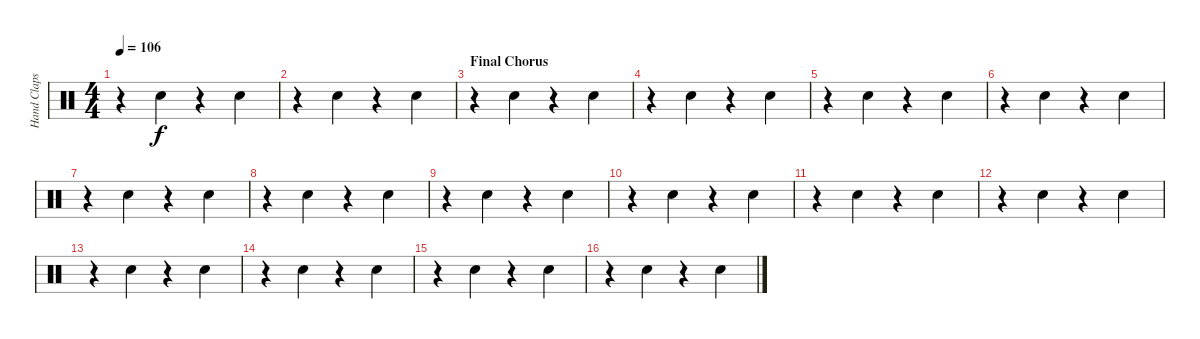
\track ("Hand Claps" "Hand Claps") {instrument percussion}
\staff {score}
\articulation defaults
\ts (4 4)
\tempo 106
\clef neutral
\ks c
r.4{dy f} "Hand Clap (hit)".4 r.4 "Hand Clap (hit)".4 |
r.4 "Hand Clap (hit)".4 r.4 "Hand Clap (hit)".4 |
\section ("" "Final Chorus")
r.4 "Hand Clap (hit)".4 r.4 "Hand Clap (hit)".4 |
r.4 "Hand Clap (hit)".4 r.4 "Hand Clap (hit)".4 |
r.4 "Hand Clap (hit)".4 r.4 "Hand Clap (hit)".4 |
r.4 "Hand Clap (hit)".4 r.4 "Hand Clap (hit)".4 |
r.4 "Hand Clap (hit)".4 r.4 "Hand Clap (hit)".4 |
r.4 "Hand Clap (hit)".4 r.4 "Hand Clap (hit)".4 |
r.4 "Hand Clap (hit)".4 r.4 "Hand Clap (hit)".4 |
r.4 "Hand Clap (hit)".4 r.4 "Hand Clap (hit)".4 |
r.4 "Hand Clap (hit)".4 r.4 "Hand Clap (hit)".4 |
r.4 "Hand Clap (hit)".4 r.4 "Hand Clap (hit)".4 |
r.4 "Hand Clap (hit)".4 r.4 "Hand Clap (hit)".4 |
r.4 "Hand Clap (hit)".4 r.4 "Hand Clap (hit)".4 |
r.4 "Hand Clap (hit)".4 r.4 "Hand Clap (hit)".4 |
r.4 "Hand Clap (hit)".4 r.4 "Hand Clap (hit)".4
